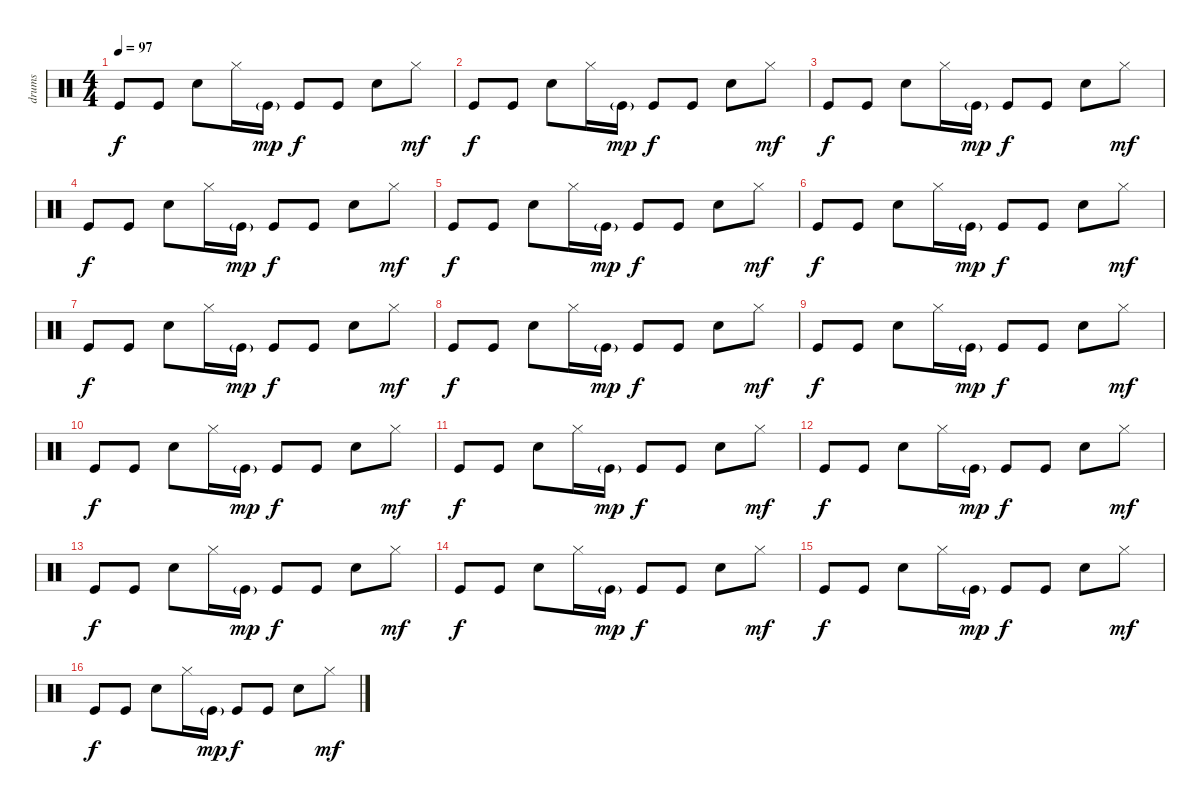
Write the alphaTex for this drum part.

\track ("drums" "drums") {instrument percussion}
\staff {score}
\articulation defaults
\ts (4 4)
\tempo 97
\clef neutral
\ks c "Kick (hit)".8{dy f} "Kick (hit)".8 "Electric Snare (hit)".8 "Hi-Hat (closed)".16 "Kick (hit)"{g}.16{dy mp} "Kick (hit)".8{dy f} "Kick (hit)".8 "Electric Snare (hit)".8 "Hi-Hat (closed)".8{dy mf}
|
"Kick (hit)".8{dy f} "Kick (hit)".8 "Electric Snare (hit)".8 "Hi-Hat (closed)".16 "Kick (hit)"{g}.16{dy mp} "Kick (hit)".8{dy f} "Kick (hit)".8 "Electric Snare (hit)".8 "Hi-Hat (closed)".8{dy mf} |
"Kick (hit)".8{dy f} "Kick (hit)".8 "Electric Snare (hit)".8 "Hi-Hat (closed)".16 "Kick (hit)"{g}.16{dy mp} "Kick (hit)".8{dy f} "Kick (hit)".8 "Electric Snare (hit)".8 "Hi-Hat (closed)".8{dy mf} |
"Kick (hit)".8{dy f} "Kick (hit)".8 "Electric Snare (hit)".8 "Hi-Hat (closed)".16 "Kick (hit)"{g}.16{dy mp} "Kick (hit)".8{dy f} "Kick (hit)".8 "Electric Snare (hit)".8 "Hi-Hat (closed)".8{dy mf} |
"Kick (hit)".8{dy f} "Kick (hit)".8 "Electric Snare (hit)".8 "Hi-Hat (closed)".16 "Kick (hit)"{g}.16{dy mp} "Kick (hit)".8{dy f} "Kick (hit)".8 "Electric Snare (hit)".8 "Hi-Hat (closed)".8{dy mf} |
"Kick (hit)".8{dy f} "Kick (hit)".8 "Electric Snare (hit)".8 "Hi-Hat (closed)".16 "Kick (hit)"{g}.16{dy mp} "Kick (hit)".8{dy f} "Kick (hit)".8 "Electric Snare (hit)".8 "Hi-Hat (closed)".8{dy mf} |
"Kick (hit)".8{dy f} "Kick (hit)".8 "Electric Snare (hit)".8 "Hi-Hat (closed)".16 "Kick (hit)"{g}.16{dy mp} "Kick (hit)".8{dy f} "Kick (hit)".8 "Electric Snare (hit)".8 "Hi-Hat (closed)".8{dy mf} |
"Kick (hit)".8{dy f} "Kick (hit)".8 "Electric Snare (hit)".8 "Hi-Hat (closed)".16 "Kick (hit)"{g}.16{dy mp} "Kick (hit)".8{dy f} "Kick (hit)".8 "Electric Snare (hit)".8 "Hi-Hat (closed)".8{dy mf} |
"Kick (hit)".8{dy f} "Kick (hit)".8 "Electric Snare (hit)".8 "Hi-Hat (closed)".16 "Kick (hit)"{g}.16{dy mp} "Kick (hit)".8{dy f} "Kick (hit)".8 "Electric Snare (hit)".8 "Hi-Hat (closed)".8{dy mf} |
"Kick (hit)".8{dy f} "Kick (hit)".8 "Electric Snare (hit)".8 "Hi-Hat (closed)".16 "Kick (hit)"{g}.16{dy mp} "Kick (hit)".8{dy f} "Kick (hit)".8 "Electric Snare (hit)".8 "Hi-Hat (closed)".8{dy mf} |
"Kick (hit)".8{dy f} "Kick (hit)".8 "Electric Snare (hit)".8 "Hi-Hat (closed)".16 "Kick (hit)"{g}.16{dy mp} "Kick (hit)".8{dy f} "Kick (hit)".8 "Electric Snare (hit)".8 "Hi-Hat (closed)".8{dy mf} |
"Kick (hit)".8{dy f} "Kick (hit)".8 "Electric Snare (hit)".8 "Hi-Hat (closed)".16 "Kick (hit)"{g}.16{dy mp} "Kick (hit)".8{dy f} "Kick (hit)".8 "Electric Snare (hit)".8 "Hi-Hat (closed)".8{dy mf} |
"Kick (hit)".8{dy f} "Kick (hit)".8 "Electric Snare (hit)".8 "Hi-Hat (closed)".16 "Kick (hit)"{g}.16{dy mp} "Kick (hit)".8{dy f} "Kick (hit)".8 "Electric Snare (hit)".8 "Hi-Hat (closed)".8{dy mf} |
"Kick (hit)".8{dy f} "Kick (hit)".8 "Electric Snare (hit)".8 "Hi-Hat (closed)".16 "Kick (hit)"{g}.16{dy mp} "Kick (hit)".8{dy f} "Kick (hit)".8 "Electric Snare (hit)".8 "Hi-Hat (closed)".8{dy mf} |
"Kick (hit)".8{dy f} "Kick (hit)".8 "Electric Snare (hit)".8 "Hi-Hat (closed)".16 "Kick (hit)"{g}.16{dy mp} "Kick (hit)".8{dy f} "Kick (hit)".8 "Electric Snare (hit)".8 "Hi-Hat (closed)".8{dy mf} |
"Kick (hit)".8{dy f} "Kick (hit)".8 "Electric Snare (hit)".8 "Hi-Hat (closed)".16 "Kick (hit)"{g}.16{dy mp} "Kick (hit)".8{dy f} "Kick (hit)".8 "Electric Snare (hit)".8 "Hi-Hat (closed)".8{dy mf}
